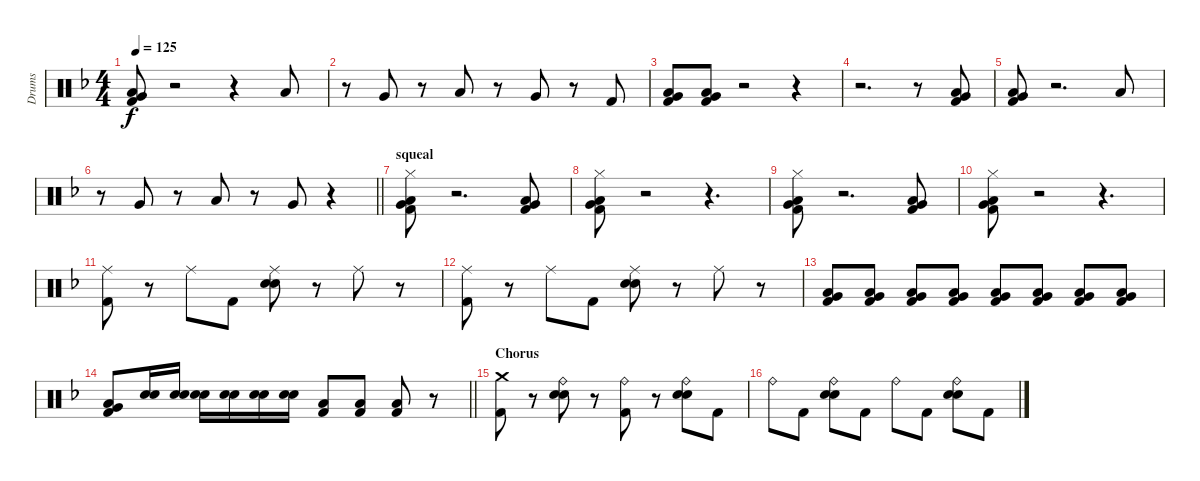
\track ("Drums" "Drums") {instrument percussion}
\staff {score}
\articulation defaults
\ts (4 4)
\tempo 125
\clef neutral
\ks f
("Very Low Tom (hit)" "Low Floor Tom (hit)" "Kick (hit) 2").8{dy f} r.2 r.4 "Low Tom (hit)".8 |
r.8 "Very Low Tom (hit)".8 r.8 "Low Tom (hit)".8 r.8 "Very Low Tom (hit)".8 r.8 "Kick (hit) 2".8 |
("Very Low Tom (hit)" "Low Floor Tom (hit)" "Kick (hit) 2").8 ("Very Low Tom (hit)" "Low Floor Tom (hit)" "Kick (hit) 2").8 r.2 r.4 |
r.2{d} r.8 ("Very Low Tom (hit)" "Low Floor Tom (hit)" "Kick (hit) 2").8 |
("Very Low Tom (hit)" "Low Floor Tom (hit)" "Kick (hit) 2").8 r.2{d} "Low Tom (hit)".8 |
\barLineRight lightlight
r.8 "Very Low Tom (hit)".8 r.8 "Low Tom (hit)".8 r.8 "Very Low Tom (hit)".8 r.4 |
\section ("" "squeal")
("Hi-Hat (closed)" "Very Low Tom (hit)" "Low Floor Tom (hit)" "Kick (hit) 2").8 r.2{d} ("Very Low Tom (hit)" "Low Floor Tom (hit)" "Kick (hit) 2").8 |
("Hi-Hat (closed)" "Very Low Tom (hit)" "Low Floor Tom (hit)" "Kick (hit) 2").8 r.2 r.4{d} |
("Hi-Hat (closed)" "Very Low Tom (hit)" "Low Floor Tom (hit)" "Kick (hit) 2").8 r.2{d} ("Very Low Tom (hit)" "Low Floor Tom (hit)" "Kick (hit) 2").8 |
("Hi-Hat (closed)" "Very Low Tom (hit)" "Low Floor Tom (hit)" "Kick (hit) 2").8 r.2 r.4{d} |
("Ride (middle)" "Kick (hit) 2").8 r.8 "Ride (middle)".8 "Kick (hit) 2".8 ("Ride (middle)" "Electric Snare (hit)" "Snare (hit) 2").8 r.8 "Ride (middle)".8 r.8 |
("Ride (middle)" "Kick (hit) 2").8 r.8 "Ride (middle)".8 "Kick (hit) 2".8 ("Ride (middle)" "Electric Snare (hit)" "Snare (hit) 2").8 r.8 "Ride (middle)".8 r.8 |
("Very Low Tom (hit)" "Low Floor Tom (hit)" "Kick (hit) 2").8 ("Very Low Tom (hit)" "Low Floor Tom (hit)" "Kick (hit) 2").8 ("Very Low Tom (hit)" "Low Floor Tom (hit)" "Kick (hit) 2").8 ("Very Low Tom (hit)" "Low Floor Tom (hit)" "Kick (hit) 2").8 ("Very Low Tom (hit)" "Low Floor Tom (hit)" "Kick (hit) 2").8 ("Very Low Tom (hit)" "Low Floor Tom (hit)" "Kick (hit) 2").8 ("Very Low Tom (hit)" "Low Floor Tom (hit)" "Kick (hit) 2").8 ("Very Low Tom (hit)" "Low Floor Tom (hit)" "Kick (hit) 2").8 |
\barLineRight lightlight
("Very Low Tom (hit)" "Low Floor Tom (hit)" "Kick (hit) 2").8 ("Electric Snare (hit)" "Snare (hit) 2").16 ("Electric Snare (hit)" "Snare (hit) 2").16 ("Electric Snare (hit)" "Snare (hit) 2").16 ("Electric Snare (hit)" "Snare (hit) 2").16 ("Electric Snare (hit)" "Snare (hit) 2").16 ("Electric Snare (hit)" "Snare (hit) 2").16 ("Low Floor Tom (hit)" "Kick (hit) 2").8 ("Low Floor Tom (hit)" "Kick (hit) 2").8 ("Low Floor Tom (hit)" "Kick (hit) 2").8 r.8 |
\section ("" "Chorus")
("Crash medium (hit)" "Kick (hit) 2").8 r.8 ("Ride (bell)" "Electric Snare (hit)" "Snare (hit) 2").8 r.8 ("Ride (bell)" "Kick (hit) 2").8 r.8 ("Ride (bell)" "Electric Snare (hit)" "Snare (hit) 2").8 "Kick (hit) 2".8 |
"Ride (bell)".8 "Kick (hit) 2".8 ("Ride (bell)" "Electric Snare (hit)" "Snare (hit) 2").8 "Kick (hit) 2".8 "Ride (bell)".8 "Kick (hit) 2".8 ("Ride (bell)" "Electric Snare (hit)" "Snare (hit) 2").8 "Kick (hit) 2".8
